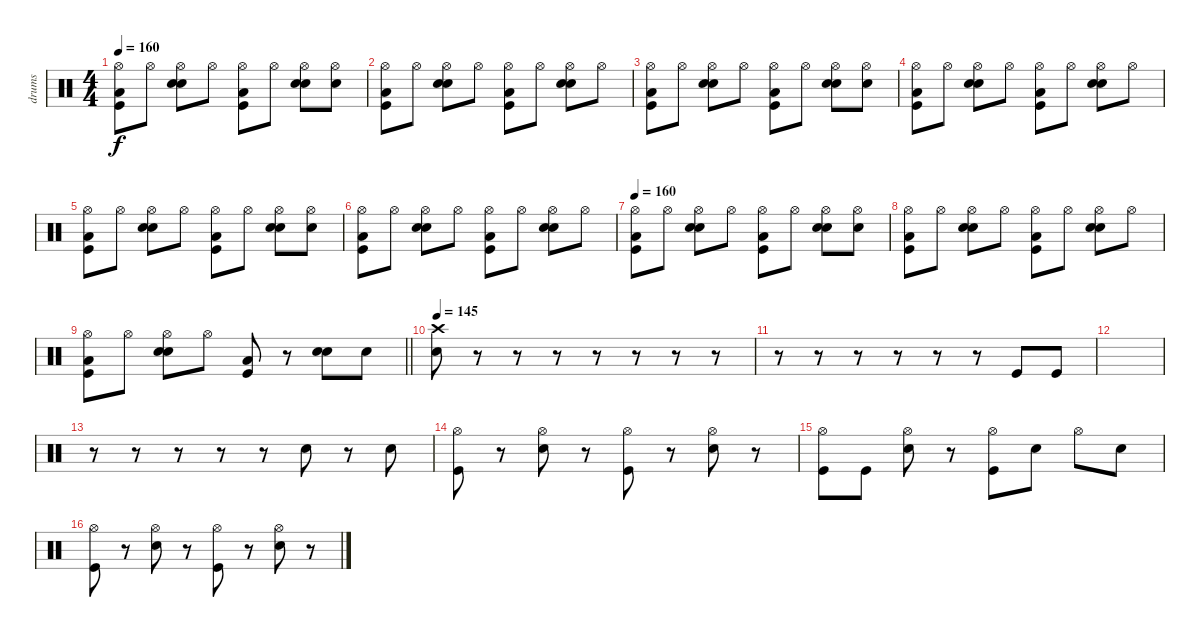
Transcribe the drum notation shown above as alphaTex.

\track ("drums" "drums") {instrument percussion}
\staff {score}
\articulation defaults
\ts (4 4)
\tempo 160
\clef neutral
\ks c
("Hi-Hat (open)" "Low Floor Tom (hit)" "Kick (hit)").8{dy f} "Hi-Hat (open)".8 ("Hi-Hat (open)" "Electric Snare (hit)" "Snare (hit) 2").8 "Hi-Hat (open)".8 ("Hi-Hat (open)" "Low Floor Tom (hit)" "Kick (hit)").8 "Hi-Hat (open)".8 ("Hi-Hat (open)" "Electric Snare (hit)" "Snare (hit) 2").8 ("Hi-Hat (open)" "Electric Snare (hit)").8 |
("Hi-Hat (open)" "Low Floor Tom (hit)" "Kick (hit)").8 "Hi-Hat (open)".8 ("Hi-Hat (open)" "Electric Snare (hit)" "Snare (hit) 2").8 "Hi-Hat (open)".8 ("Hi-Hat (open)" "Low Floor Tom (hit)" "Kick (hit)").8 "Hi-Hat (open)".8 ("Hi-Hat (open)" "Electric Snare (hit)" "Snare (hit) 2").8 "Hi-Hat (open)".8 |
("Hi-Hat (open)" "Low Floor Tom (hit)" "Kick (hit)").8 "Hi-Hat (open)".8 ("Hi-Hat (open)" "Electric Snare (hit)" "Snare (hit) 2").8 "Hi-Hat (open)".8 ("Hi-Hat (open)" "Low Floor Tom (hit)" "Kick (hit)").8 "Hi-Hat (open)".8 ("Hi-Hat (open)" "Electric Snare (hit)" "Snare (hit) 2").8 ("Hi-Hat (open)" "Electric Snare (hit)").8 |
("Hi-Hat (open)" "Low Floor Tom (hit)" "Kick (hit)").8 "Hi-Hat (open)".8 ("Hi-Hat (open)" "Electric Snare (hit)" "Snare (hit) 2").8 "Hi-Hat (open)".8 ("Hi-Hat (open)" "Low Floor Tom (hit)" "Kick (hit)").8 "Hi-Hat (open)".8 ("Hi-Hat (open)" "Electric Snare (hit)" "Snare (hit) 2").8 "Hi-Hat (open)".8 |
("Hi-Hat (open)" "Low Floor Tom (hit)" "Kick (hit)").8 "Hi-Hat (open)".8 ("Hi-Hat (open)" "Electric Snare (hit)" "Snare (hit) 2").8 "Hi-Hat (open)".8 ("Hi-Hat (open)" "Low Floor Tom (hit)" "Kick (hit)").8 "Hi-Hat (open)".8 ("Hi-Hat (open)" "Electric Snare (hit)" "Snare (hit) 2").8 ("Hi-Hat (open)" "Electric Snare (hit)").8 |
("Hi-Hat (open)" "Low Floor Tom (hit)" "Kick (hit)").8 "Hi-Hat (open)".8 ("Hi-Hat (open)" "Electric Snare (hit)" "Snare (hit) 2").8 "Hi-Hat (open)".8 ("Hi-Hat (open)" "Low Floor Tom (hit)" "Kick (hit)").8 "Hi-Hat (open)".8 ("Hi-Hat (open)" "Electric Snare (hit)" "Snare (hit) 2").8 "Hi-Hat (open)".8 |
\tempo 160
("Hi-Hat (open)" "Low Floor Tom (hit)" "Kick (hit)").8 "Hi-Hat (open)".8 ("Hi-Hat (open)" "Electric Snare (hit)" "Snare (hit) 2").8 "Hi-Hat (open)".8 ("Hi-Hat (open)" "Low Floor Tom (hit)" "Kick (hit)").8 "Hi-Hat (open)".8 ("Hi-Hat (open)" "Electric Snare (hit)" "Snare (hit) 2").8 ("Hi-Hat (open)" "Electric Snare (hit)").8 |
("Hi-Hat (open)" "Low Floor Tom (hit)" "Kick (hit)").8 "Hi-Hat (open)".8 ("Hi-Hat (open)" "Electric Snare (hit)" "Snare (hit) 2").8 "Hi-Hat (open)".8 ("Hi-Hat (open)" "Low Floor Tom (hit)" "Kick (hit)").8 "Hi-Hat (open)".8 ("Hi-Hat (open)" "Electric Snare (hit)" "Snare (hit) 2").8 "Hi-Hat (open)".8 |
\barLineRight lightlight
("Hi-Hat (open)" "Low Floor Tom (hit)" "Kick (hit)").8 "Hi-Hat (open)".8 ("Hi-Hat (open)" "Electric Snare (hit)" "Snare (hit) 2").8 "Hi-Hat (open)".8 ("Low Floor Tom (hit)" "Kick (hit)").8 r.8 ("Electric Snare (hit)" "Snare (hit) 2").8 "Electric Snare (hit)".8 |
\section ("" "")
\tempo 145
("Crash high (hit)" "Snare (hit) 2").8 r.8 r.8 r.8 r.8 r.8 r.8 r.8 |
r.8 r.8 r.8 r.8 r.8 r.8 "Kick (hit)".8 "Kick (hit)".8 |
|
r.8 r.8 r.8 r.8 r.8 "Snare (hit) 2".8 r.8 "Snare (hit) 2".8 |
("Hi-Hat (open)" "Kick (hit)").8 r.8 ("Hi-Hat (open)" "Snare (hit) 2").8 r.8 ("Hi-Hat (open)" "Kick (hit)").8 r.8 ("Hi-Hat (open)" "Snare (hit) 2").8 r.8 |
("Hi-Hat (open)" "Kick (hit)").8 "Kick (hit)".8 ("Hi-Hat (open)" "Snare (hit) 2").8 r.8 ("Hi-Hat (open)" "Kick (hit)").8 "Snare (hit) 2".8 "Hi-Hat (open)".8 "Snare (hit) 2".8 |
("Hi-Hat (open)" "Kick (hit)").8 r.8 ("Hi-Hat (open)" "Snare (hit) 2").8 r.8 ("Hi-Hat (open)" "Kick (hit)").8 r.8 ("Hi-Hat (open)" "Snare (hit) 2").8 r.8
